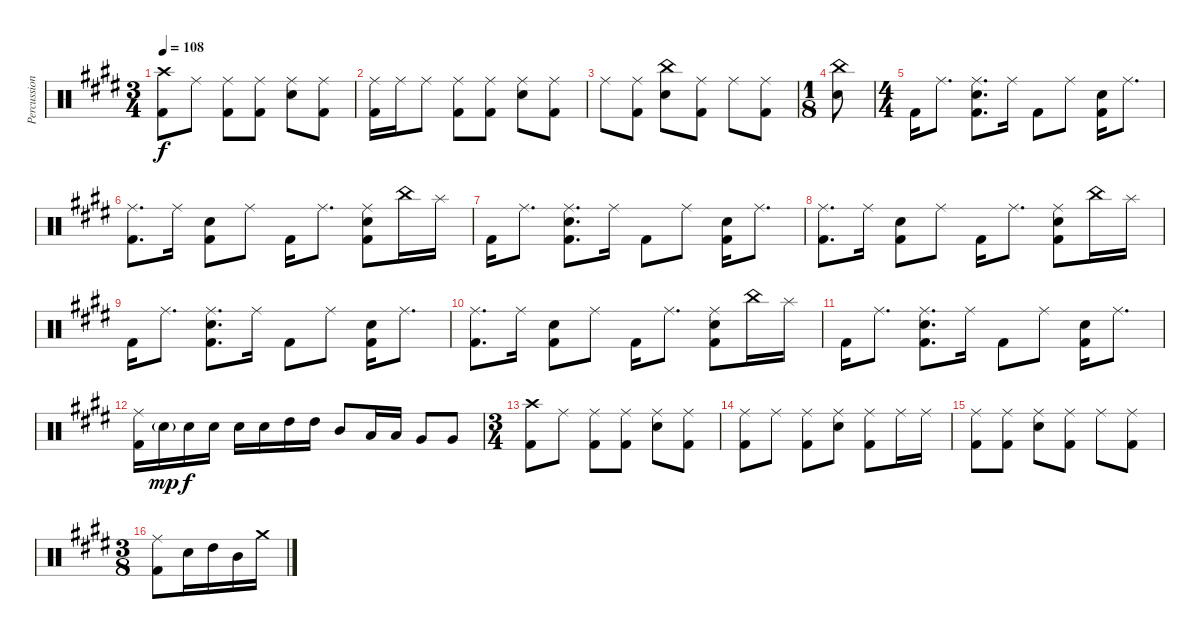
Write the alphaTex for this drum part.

\track ("Percussion" "Percussion") {instrument percussion}
\staff {score}
\articulation defaults
\ts (3 4)
\tempo 108
\clef neutral
\ks e
("Crash high (hit)" "Kick (hit) 2").8{dy f beam merge} "Ride (middle)".8 ("Ride (middle)" "Kick (hit) 2").8 ("Ride (middle)" "Kick (hit) 2").8 ("Ride (middle)" "Electric Snare (hit)").8 ("Ride (middle)" "Kick (hit) 2").8 |
("Ride (middle)" "Kick (hit) 2").16 "Ride (middle)".16 "Ride (middle)".8 ("Ride (middle)" "Kick (hit) 2").8 ("Ride (middle)" "Kick (hit) 2").8 ("Ride (middle)" "Electric Snare (hit)").8 ("Ride (middle)" "Kick (hit) 2").8 |
"Ride (middle)".8{beam merge} ("Ride (middle)" "Kick (hit) 2").8 ("China (hit)" "Electric Snare (hit)").8 ("Ride (middle)" "Kick (hit) 2").8 "Ride (middle)".8 ("Ride (middle)" "Kick (hit) 2").8 |
\ts (1 8)
("China (hit)" "Electric Snare (hit)").8 |
\ts (4 4)
"Kick (hit) 2".16 "Ride (middle)".8{d} ("Ride (middle)" "Electric Snare (hit)" "Kick (hit) 2").8{d} "Ride (middle)".16 "Kick (hit) 2".8 "Ride (middle)".8 ("Electric Snare (hit)" "Kick (hit) 2").16 "Ride (middle)".8{d} |
("Ride (middle)" "Kick (hit) 2").8{d} "Ride (middle)".16 ("Electric Snare (hit)" "Kick (hit) 2").8 "Ride (middle)".8 "Kick (hit) 2".16 "Ride (middle)".8{d} ("Ride (middle)" "Electric Snare (hit)" "Kick (hit) 2").8 "China (hit)".16 "Splash (hit)".16 |
"Kick (hit) 2".16 "Ride (middle)".8{d} ("Ride (middle)" "Electric Snare (hit)" "Kick (hit) 2").8{d} "Ride (middle)".16 "Kick (hit) 2".8 "Ride (middle)".8 ("Electric Snare (hit)" "Kick (hit) 2").16 "Ride (middle)".8{d} |
("Ride (middle)" "Kick (hit) 2").8{d} "Ride (middle)".16 ("Electric Snare (hit)" "Kick (hit) 2").8 "Ride (middle)".8 "Kick (hit) 2".16 "Ride (middle)".8{d} ("Ride (middle)" "Electric Snare (hit)" "Kick (hit) 2").8 "China (hit)".16 "Splash (hit)".16 |
"Kick (hit) 2".16 "Ride (middle)".8{d} ("Ride (middle)" "Electric Snare (hit)" "Kick (hit) 2").8{d} "Ride (middle)".16 "Kick (hit) 2".8 "Ride (middle)".8 ("Electric Snare (hit)" "Kick (hit) 2").16 "Ride (middle)".8{d} |
("Ride (middle)" "Kick (hit) 2").8{d} "Ride (middle)".16 ("Electric Snare (hit)" "Kick (hit) 2").8 "Ride (middle)".8 "Kick (hit) 2".16 "Ride (middle)".8{d} ("Ride (middle)" "Electric Snare (hit)" "Kick (hit) 2").8 "China (hit)".16 "Splash (hit)".16 |
"Kick (hit) 2".16 "Ride (middle)".8{d} ("Ride (middle)" "Electric Snare (hit)" "Kick (hit) 2").8{d} "Ride (middle)".16 "Kick (hit) 2".8 "Ride (middle)".8 ("Electric Snare (hit)" "Kick (hit) 2").16 "Ride (middle)".8{d} |
("Ride (middle)" "Kick (hit) 2").16 "Electric Snare (hit)"{g}.16{dy mp} "Electric Snare (hit)".16{dy f} "Electric Snare (hit)".16 "Electric Snare (hit)".16 "Electric Snare (hit)".16 "High Tom (hit)".16 "High Tom (hit)".16 "Mid Tom (hit)".8 "Low Tom (hit)".16 "Low Tom (hit)".16 "Very Low Tom (hit)".8 "Very Low Tom (hit)".8 |
\ts (3 4)
("Crash high (hit)" "Kick (hit) 2").8 "Ride (middle)".8 ("Ride (middle)" "Kick (hit) 2").8 ("Ride (middle)" "Kick (hit) 2").8 ("Ride (middle)" "Electric Snare (hit)").8 ("Ride (middle)" "Kick (hit) 2").8 |
("Ride (middle)" "Kick (hit) 2").8 "Ride (middle)".8 ("Ride (middle)" "Kick (hit) 2").8 ("Ride (middle)" "Electric Snare (hit)").8 ("Ride (middle)" "Kick (hit) 2").8 "Ride (middle)".16 "Ride (middle)".16 |
("Ride (middle)" "Kick (hit) 2").8 ("Ride (middle)" "Kick (hit) 2").8 ("Ride (middle)" "Electric Snare (hit)").8 ("Ride (middle)" "Kick (hit) 2").8 "Ride (middle)".8 ("Ride (middle)" "Kick (hit) 2").8 |
\ts (3 8)
("Ride (middle)" "Kick (hit) 2").8 "Electric Snare (hit)".16 "High Tom (hit)".16 "Mid Tom (hit)".16 "Crash medium (hit)".16
